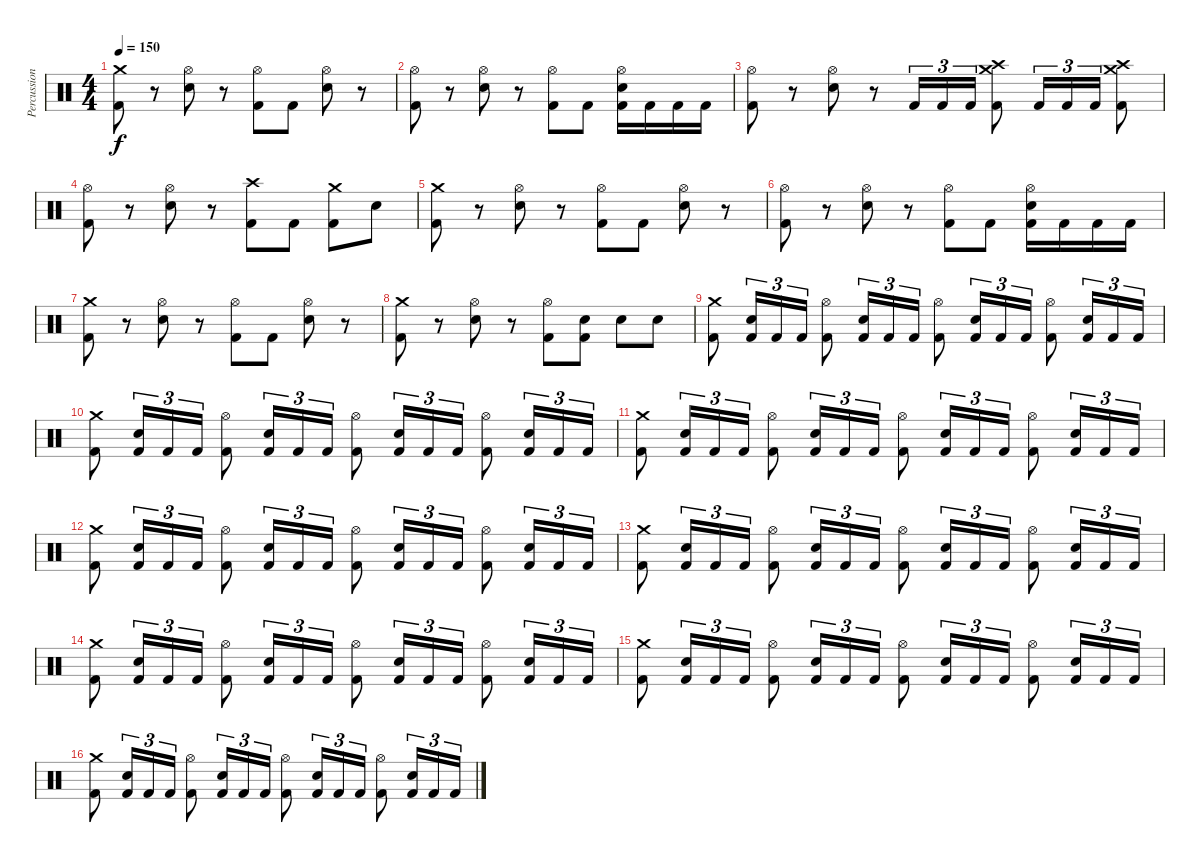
\track ("Percussion" "Percussion") {instrument percussion}
\staff {score}
\articulation defaults
\ts (4 4)
\tempo 150
\clef neutral
\ks c
("Kick (hit) 2" "Crash medium (hit)").8{dy f} r.8 ("Snare (hit) 2" "Hi-Hat (open)").8 r.8 ("Kick (hit) 2" "Hi-Hat (open)").8 "Kick (hit) 2".8 ("Snare (hit) 2" "Hi-Hat (open)").8 r.8 |
("Kick (hit) 2" "Hi-Hat (open)").8 r.8 ("Snare (hit) 2" "Hi-Hat (open)").8 r.8 ("Kick (hit) 2" "Hi-Hat (open)").8 "Kick (hit) 2".8 ("Kick (hit) 2" "Snare (hit) 2" "Hi-Hat (open)").16 "Kick (hit) 2".16 "Kick (hit) 2".16 "Kick (hit) 2".16 |
("Kick (hit) 2" "Hi-Hat (open)").8 r.8 ("Snare (hit) 2" "Hi-Hat (open)").8 r.8 "Kick (hit) 2".16{tu (3 2)} "Kick (hit) 2".16{tu (3 2)} "Kick (hit) 2".16{tu (3 2)} ("Kick (hit) 2" "Crash high (hit)" "Crash medium (hit)").8 "Kick (hit) 2".16{tu (3 2)} "Kick (hit) 2".16{tu (3 2)} "Kick (hit) 2".16{tu (3 2)} ("Kick (hit) 2" "Crash high (hit)" "Crash medium (hit)").8 |
("Kick (hit) 2" "Hi-Hat (open)").8 r.8 ("Snare (hit) 2" "Hi-Hat (open)").8 r.8 ("Kick (hit) 2" "Crash high (hit)").8 "Kick (hit) 2".8 ("Kick (hit) 2" "Crash medium (hit)").8 "Snare (hit) 2".8 |
("Kick (hit) 2" "Crash medium (hit)").8 r.8 ("Snare (hit) 2" "Hi-Hat (open)").8 r.8 ("Kick (hit) 2" "Hi-Hat (open)").8 "Kick (hit) 2".8 ("Snare (hit) 2" "Hi-Hat (open)").8 r.8 |
("Kick (hit) 2" "Hi-Hat (open)").8 r.8 ("Snare (hit) 2" "Hi-Hat (open)").8 r.8 ("Kick (hit) 2" "Hi-Hat (open)").8 "Kick (hit) 2".8 ("Kick (hit) 2" "Snare (hit) 2" "Hi-Hat (open)").16 "Kick (hit) 2".16 "Kick (hit) 2".16 "Kick (hit) 2".16 |
("Kick (hit) 2" "Crash medium (hit)").8 r.8 ("Snare (hit) 2" "Hi-Hat (open)").8 r.8 ("Kick (hit) 2" "Hi-Hat (open)").8 "Kick (hit) 2".8 ("Snare (hit) 2" "Hi-Hat (open)").8 r.8 |
("Kick (hit) 2" "Crash medium (hit)").8 r.8 ("Snare (hit) 2" "Hi-Hat (open)").8 r.8 ("Kick (hit) 2" "Hi-Hat (open)").8 ("Kick (hit) 2" "Snare (hit) 2").8 "Snare (hit) 2".8 "Snare (hit) 2".8 |
("Kick (hit) 2" "Crash medium (hit)").8 ("Kick (hit) 2" "Snare (hit) 2").16{tu (3 2)} "Kick (hit) 2".16{tu (3 2)} "Kick (hit) 2".16{tu (3 2)} ("Kick (hit) 2" "Hi-Hat (open)").8 ("Kick (hit) 2" "Snare (hit) 2").16{tu (3 2)} "Kick (hit) 2".16{tu (3 2)} "Kick (hit) 2".16{tu (3 2)} ("Kick (hit) 2" "Hi-Hat (open)").8 ("Kick (hit) 2" "Snare (hit) 2").16{tu (3 2)} "Kick (hit) 2".16{tu (3 2)} "Kick (hit) 2".16{tu (3 2)} ("Kick (hit) 2" "Hi-Hat (open)").8 ("Kick (hit) 2" "Snare (hit) 2").16{tu (3 2)} "Kick (hit) 2".16{tu (3 2)} "Kick (hit) 2".16{tu (3 2)} |
("Kick (hit) 2" "Crash medium (hit)").8 ("Kick (hit) 2" "Snare (hit) 2").16{tu (3 2)} "Kick (hit) 2".16{tu (3 2)} "Kick (hit) 2".16{tu (3 2)} ("Kick (hit) 2" "Hi-Hat (open)").8 ("Kick (hit) 2" "Snare (hit) 2").16{tu (3 2)} "Kick (hit) 2".16{tu (3 2)} "Kick (hit) 2".16{tu (3 2)} ("Kick (hit) 2" "Hi-Hat (open)").8 ("Kick (hit) 2" "Snare (hit) 2").16{tu (3 2)} "Kick (hit) 2".16{tu (3 2)} "Kick (hit) 2".16{tu (3 2)} ("Kick (hit) 2" "Hi-Hat (open)").8 ("Kick (hit) 2" "Snare (hit) 2").16{tu (3 2)} "Kick (hit) 2".16{tu (3 2)} "Kick (hit) 2".16{tu (3 2)} |
("Kick (hit) 2" "Crash medium (hit)").8 ("Kick (hit) 2" "Snare (hit) 2").16{tu (3 2)} "Kick (hit) 2".16{tu (3 2)} "Kick (hit) 2".16{tu (3 2)} ("Kick (hit) 2" "Hi-Hat (open)").8 ("Kick (hit) 2" "Snare (hit) 2").16{tu (3 2)} "Kick (hit) 2".16{tu (3 2)} "Kick (hit) 2".16{tu (3 2)} ("Kick (hit) 2" "Hi-Hat (open)").8 ("Kick (hit) 2" "Snare (hit) 2").16{tu (3 2)} "Kick (hit) 2".16{tu (3 2)} "Kick (hit) 2".16{tu (3 2)} ("Kick (hit) 2" "Hi-Hat (open)").8 ("Kick (hit) 2" "Snare (hit) 2").16{tu (3 2)} "Kick (hit) 2".16{tu (3 2)} "Kick (hit) 2".16{tu (3 2)} |
("Kick (hit) 2" "Crash medium (hit)").8 ("Kick (hit) 2" "Snare (hit) 2").16{tu (3 2)} "Kick (hit) 2".16{tu (3 2)} "Kick (hit) 2".16{tu (3 2)} ("Kick (hit) 2" "Hi-Hat (open)").8 ("Kick (hit) 2" "Snare (hit) 2").16{tu (3 2)} "Kick (hit) 2".16{tu (3 2)} "Kick (hit) 2".16{tu (3 2)} ("Kick (hit) 2" "Hi-Hat (open)").8 ("Kick (hit) 2" "Snare (hit) 2").16{tu (3 2)} "Kick (hit) 2".16{tu (3 2)} "Kick (hit) 2".16{tu (3 2)} ("Kick (hit) 2" "Hi-Hat (open)").8 ("Kick (hit) 2" "Snare (hit) 2").16{tu (3 2)} "Kick (hit) 2".16{tu (3 2)} "Kick (hit) 2".16{tu (3 2)} |
("Kick (hit) 2" "Crash medium (hit)").8 ("Kick (hit) 2" "Snare (hit) 2").16{tu (3 2)} "Kick (hit) 2".16{tu (3 2)} "Kick (hit) 2".16{tu (3 2)} ("Kick (hit) 2" "Hi-Hat (open)").8 ("Kick (hit) 2" "Snare (hit) 2").16{tu (3 2)} "Kick (hit) 2".16{tu (3 2)} "Kick (hit) 2".16{tu (3 2)} ("Kick (hit) 2" "Hi-Hat (open)").8 ("Kick (hit) 2" "Snare (hit) 2").16{tu (3 2)} "Kick (hit) 2".16{tu (3 2)} "Kick (hit) 2".16{tu (3 2)} ("Kick (hit) 2" "Hi-Hat (open)").8 ("Kick (hit) 2" "Snare (hit) 2").16{tu (3 2)} "Kick (hit) 2".16{tu (3 2)} "Kick (hit) 2".16{tu (3 2)} |
("Kick (hit) 2" "Crash medium (hit)").8 ("Kick (hit) 2" "Snare (hit) 2").16{tu (3 2)} "Kick (hit) 2".16{tu (3 2)} "Kick (hit) 2".16{tu (3 2)} ("Kick (hit) 2" "Hi-Hat (open)").8 ("Kick (hit) 2" "Snare (hit) 2").16{tu (3 2)} "Kick (hit) 2".16{tu (3 2)} "Kick (hit) 2".16{tu (3 2)} ("Kick (hit) 2" "Hi-Hat (open)").8 ("Kick (hit) 2" "Snare (hit) 2").16{tu (3 2)} "Kick (hit) 2".16{tu (3 2)} "Kick (hit) 2".16{tu (3 2)} ("Kick (hit) 2" "Hi-Hat (open)").8 ("Kick (hit) 2" "Snare (hit) 2").16{tu (3 2)} "Kick (hit) 2".16{tu (3 2)} "Kick (hit) 2".16{tu (3 2)} |
("Kick (hit) 2" "Crash medium (hit)").8 ("Kick (hit) 2" "Snare (hit) 2").16{tu (3 2)} "Kick (hit) 2".16{tu (3 2)} "Kick (hit) 2".16{tu (3 2)} ("Kick (hit) 2" "Hi-Hat (open)").8 ("Kick (hit) 2" "Snare (hit) 2").16{tu (3 2)} "Kick (hit) 2".16{tu (3 2)} "Kick (hit) 2".16{tu (3 2)} ("Kick (hit) 2" "Hi-Hat (open)").8 ("Kick (hit) 2" "Snare (hit) 2").16{tu (3 2)} "Kick (hit) 2".16{tu (3 2)} "Kick (hit) 2".16{tu (3 2)} ("Kick (hit) 2" "Hi-Hat (open)").8 ("Kick (hit) 2" "Snare (hit) 2").16{tu (3 2)} "Kick (hit) 2".16{tu (3 2)} "Kick (hit) 2".16{tu (3 2)} |
("Kick (hit) 2" "Crash medium (hit)").8 ("Kick (hit) 2" "Snare (hit) 2").16{tu (3 2)} "Kick (hit) 2".16{tu (3 2)} "Kick (hit) 2".16{tu (3 2)} ("Kick (hit) 2" "Hi-Hat (open)").8 ("Kick (hit) 2" "Snare (hit) 2").16{tu (3 2)} "Kick (hit) 2".16{tu (3 2)} "Kick (hit) 2".16{tu (3 2)} ("Kick (hit) 2" "Hi-Hat (open)").8 ("Kick (hit) 2" "Snare (hit) 2").16{tu (3 2)} "Kick (hit) 2".16{tu (3 2)} "Kick (hit) 2".16{tu (3 2)} ("Kick (hit) 2" "Hi-Hat (open)").8 ("Kick (hit) 2" "Snare (hit) 2").16{tu (3 2)} "Kick (hit) 2".16{tu (3 2)} "Kick (hit) 2".16{tu (3 2)}
